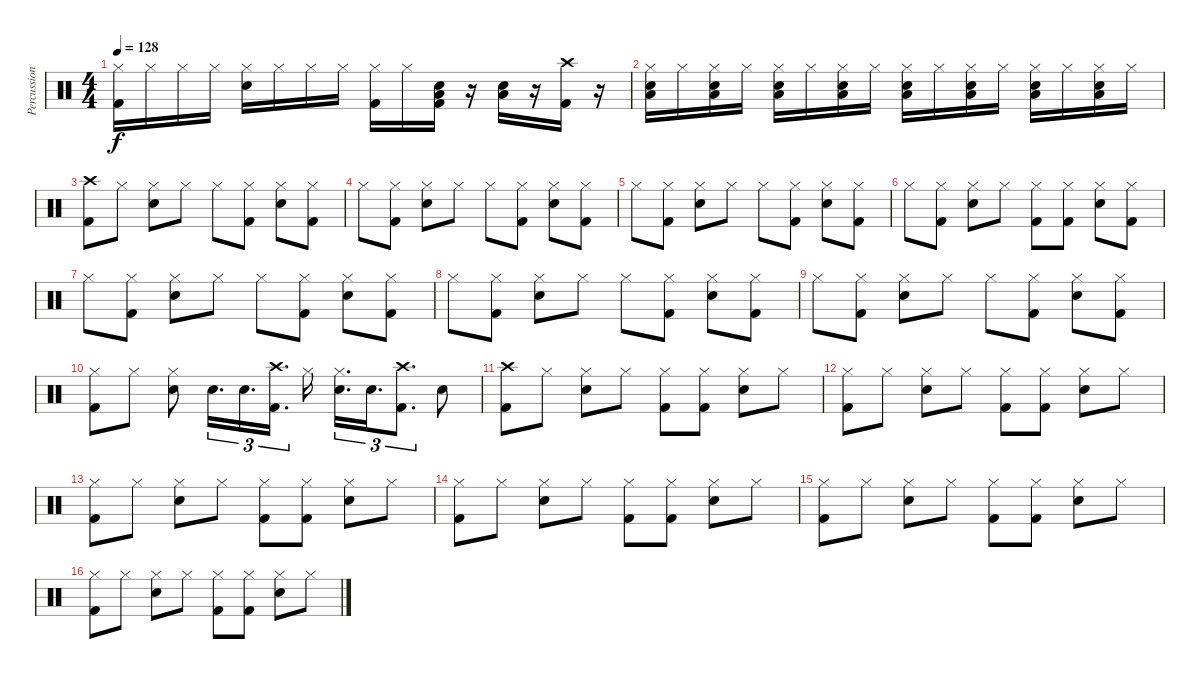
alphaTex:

\track ("Percussion" "Percussion") {instrument percussion bank 10}
\staff {score}
\articulation defaults
\ts (4 4)
\tempo 128
\clef neutral
\ks c
("Hi-Hat (closed)" "Kick (hit) 2").16{dy f} "Hi-Hat (closed)".16 "Hi-Hat (closed)".16 "Hi-Hat (closed)".16 ("Hi-Hat (closed)" "Snare (hit) 2").16 "Hi-Hat (closed)".16 "Hi-Hat (closed)".16 "Hi-Hat (closed)".16 ("Hi-Hat (closed)" "Kick (hit) 2").16 "Hi-Hat (closed)".16 ("Low Tom (hit)" "Snare (hit) 2" "Kick (hit) 2").16 r.16 ("Low Tom (hit)" "Snare (hit) 2").16 r.16 ("Crash high (hit)" "Kick (hit) 2").16 r.16 |
("Hi-Hat (closed)" "Low Tom (hit)" "Snare (hit) 2").16 "Hi-Hat (closed)".16 ("Hi-Hat (closed)" "Low Tom (hit)" "Snare (hit) 2").16 "Hi-Hat (closed)".16 ("Hi-Hat (closed)" "Low Tom (hit)" "Snare (hit) 2").16 "Hi-Hat (closed)".16 ("Hi-Hat (closed)" "Low Tom (hit)" "Snare (hit) 2").16 "Hi-Hat (closed)".16 ("Hi-Hat (closed)" "Low Tom (hit)" "Snare (hit) 2").16 "Hi-Hat (closed)".16 ("Hi-Hat (closed)" "Low Tom (hit)" "Snare (hit) 2").16 "Hi-Hat (closed)".16 ("Hi-Hat (closed)" "Low Tom (hit)" "Snare (hit) 2").16 "Hi-Hat (closed)".16 ("Hi-Hat (closed)" "Low Tom (hit)" "Snare (hit) 2").16 "Hi-Hat (closed)".16 |
("Crash high (hit)" "Kick (hit) 2").8 "Hi-Hat (closed)".8 ("Hi-Hat (closed)" "Snare (hit) 2").8 "Hi-Hat (closed)".8 "Hi-Hat (closed)".8 ("Hi-Hat (closed)" "Kick (hit) 2").8 ("Hi-Hat (closed)" "Snare (hit) 2").8 ("Hi-Hat (closed)" "Kick (hit) 2").8 |
"Hi-Hat (closed)".8 ("Hi-Hat (closed)" "Kick (hit) 2").8 ("Hi-Hat (closed)" "Snare (hit) 2").8 "Hi-Hat (closed)".8 "Hi-Hat (closed)".8 ("Hi-Hat (closed)" "Kick (hit) 2").8 ("Hi-Hat (closed)" "Snare (hit) 2").8 ("Hi-Hat (closed)" "Kick (hit) 2").8 |
"Hi-Hat (closed)".8 ("Hi-Hat (closed)" "Kick (hit) 2").8 ("Hi-Hat (closed)" "Snare (hit) 2").8 "Hi-Hat (closed)".8 "Hi-Hat (closed)".8 ("Hi-Hat (closed)" "Kick (hit) 2").8 ("Hi-Hat (closed)" "Snare (hit) 2").8 ("Hi-Hat (closed)" "Kick (hit) 2").8 |
"Hi-Hat (closed)".8 ("Hi-Hat (closed)" "Kick (hit) 2").8 ("Hi-Hat (closed)" "Snare (hit) 2").8 "Hi-Hat (closed)".8 ("Hi-Hat (closed)" "Kick (hit) 2").8 ("Hi-Hat (closed)" "Kick (hit) 2").8 ("Hi-Hat (closed)" "Snare (hit) 2").8 ("Hi-Hat (closed)" "Kick (hit) 2").8 |
"Hi-Hat (closed)".8 ("Hi-Hat (closed)" "Kick (hit) 2").8 ("Hi-Hat (closed)" "Snare (hit) 2").8 "Hi-Hat (closed)".8 "Hi-Hat (closed)".8 ("Hi-Hat (closed)" "Kick (hit) 2").8 ("Hi-Hat (closed)" "Snare (hit) 2").8 ("Hi-Hat (closed)" "Kick (hit) 2").8 |
"Hi-Hat (closed)".8 ("Hi-Hat (closed)" "Kick (hit) 2").8 ("Hi-Hat (closed)" "Snare (hit) 2").8 "Hi-Hat (closed)".8 "Hi-Hat (closed)".8 ("Hi-Hat (closed)" "Kick (hit) 2").8 ("Hi-Hat (closed)" "Snare (hit) 2").8 ("Hi-Hat (closed)" "Kick (hit) 2").8 |
"Hi-Hat (closed)".8 ("Hi-Hat (closed)" "Kick (hit) 2").8 ("Hi-Hat (closed)" "Snare (hit) 2").8 "Hi-Hat (closed)".8 "Hi-Hat (closed)".8 ("Hi-Hat (closed)" "Kick (hit) 2").8 ("Hi-Hat (closed)" "Snare (hit) 2").8 ("Hi-Hat (closed)" "Kick (hit) 2").8 |
("Hi-Hat (closed)" "Kick (hit) 2").8 "Hi-Hat (closed)".8 ("Hi-Hat (closed)" "Snare (hit) 2").8 "Snare (hit) 2".16{d tu (3 2)} "Snare (hit) 2".16{d tu (3 2)} ("Crash high (hit)" "Kick (hit) 2").16{d tu (3 2) beam splitsecondary} "Hi-Hat (closed)".16{beam splitsecondary} ("Hi-Hat (closed)" "Snare (hit) 2").16{d tu (3 2)} "Snare (hit) 2".16{d tu (3 2)} ("Crash high (hit)" "Kick (hit) 2").8{d tu (3 2)} "Snare (hit) 2".8 |
("Crash high (hit)" "Kick (hit) 2").8 "Hi-Hat (closed)".8 ("Hi-Hat (closed)" "Snare (hit) 2").8 "Hi-Hat (closed)".8 ("Hi-Hat (closed)" "Kick (hit) 2").8 ("Hi-Hat (closed)" "Kick (hit) 2").8 ("Hi-Hat (closed)" "Snare (hit) 2").8 "Hi-Hat (closed)".8 |
("Hi-Hat (closed)" "Kick (hit) 2").8 "Hi-Hat (closed)".8 ("Hi-Hat (closed)" "Snare (hit) 2").8 "Hi-Hat (closed)".8 ("Hi-Hat (closed)" "Kick (hit) 2").8 ("Hi-Hat (closed)" "Kick (hit) 2").8 ("Hi-Hat (closed)" "Snare (hit) 2").8 "Hi-Hat (closed)".8 |
("Hi-Hat (closed)" "Kick (hit) 2").8 "Hi-Hat (closed)".8 ("Hi-Hat (closed)" "Snare (hit) 2").8 "Hi-Hat (closed)".8 ("Hi-Hat (closed)" "Kick (hit) 2").8 ("Hi-Hat (closed)" "Kick (hit) 2").8 ("Hi-Hat (closed)" "Snare (hit) 2").8 "Hi-Hat (closed)".8 |
("Hi-Hat (closed)" "Kick (hit) 2").8 "Hi-Hat (closed)".8 ("Hi-Hat (closed)" "Snare (hit) 2").8 "Hi-Hat (closed)".8 ("Hi-Hat (closed)" "Kick (hit) 2").8 ("Hi-Hat (closed)" "Kick (hit) 2").8 ("Hi-Hat (closed)" "Snare (hit) 2").8 "Hi-Hat (closed)".8 |
("Hi-Hat (closed)" "Kick (hit) 2").8 "Hi-Hat (closed)".8 ("Hi-Hat (closed)" "Snare (hit) 2").8 "Hi-Hat (closed)".8 ("Hi-Hat (closed)" "Kick (hit) 2").8 ("Hi-Hat (closed)" "Kick (hit) 2").8 ("Hi-Hat (closed)" "Snare (hit) 2").8 "Hi-Hat (closed)".8 |
("Hi-Hat (closed)" "Kick (hit) 2").8 "Hi-Hat (closed)".8 ("Hi-Hat (closed)" "Snare (hit) 2").8 "Hi-Hat (closed)".8 ("Hi-Hat (closed)" "Kick (hit) 2").8 ("Hi-Hat (closed)" "Kick (hit) 2").8 ("Hi-Hat (closed)" "Snare (hit) 2").8 "Hi-Hat (closed)".8
